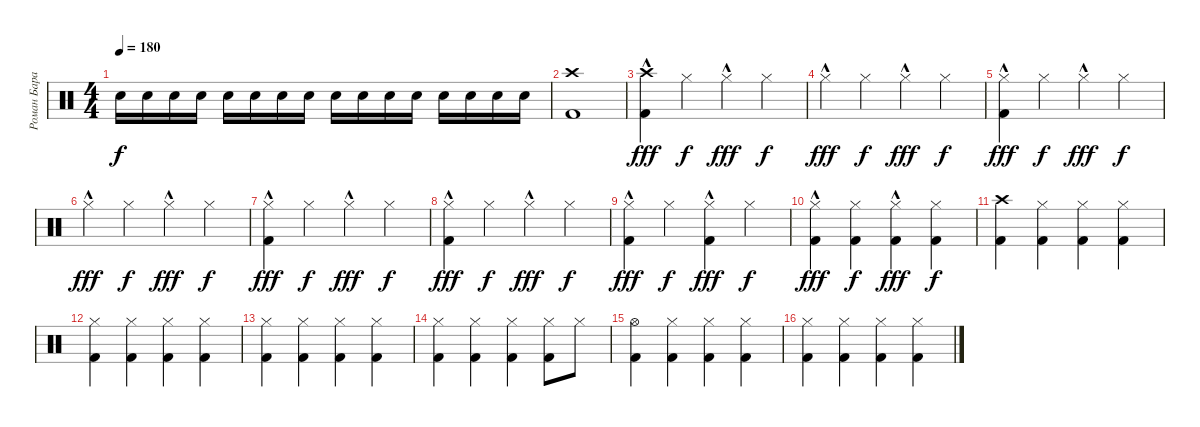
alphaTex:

\track ("Роман Баранюк" "Роман Бара") {instrument percussion}
\staff {score}
\articulation defaults
\ts (4 4)
\tempo 180
\clef neutral
\ks c "Snare (hit) 2".16{dy f} "Snare (hit) 2".16 "Snare (hit) 2".16 "Snare (hit) 2".16 "Snare (hit) 2".16 "Snare (hit) 2".16 "Snare (hit) 2".16 "Snare (hit) 2".16 "Snare (hit) 2".16 "Snare (hit) 2".16 "Snare (hit) 2".16 "Snare (hit) 2".16 "Snare (hit) 2".16 "Snare (hit) 2".16 "Snare (hit) 2".16 "Snare (hit) 2".16
|
("Crash high (hit)" "Kick (hit) 2").1 |
("Crash high (hit)"{hac} "Kick (hit) 2").4{dy fff} "Hi-Hat (closed)".4{dy f} "Hi-Hat (closed)"{hac}.4{dy fff} "Hi-Hat (closed)".4{dy f} |
"Hi-Hat (closed)"{hac}.4{dy fff} "Hi-Hat (closed)".4{dy f} "Hi-Hat (closed)"{hac}.4{dy fff} "Hi-Hat (closed)".4{dy f} |
("Hi-Hat (closed)"{hac} "Kick (hit) 2").4{dy fff} "Hi-Hat (closed)".4{dy f} "Hi-Hat (closed)"{hac}.4{dy fff} "Hi-Hat (closed)".4{dy f} |
"Hi-Hat (closed)"{hac}.4{dy fff} "Hi-Hat (closed)".4{dy f} "Hi-Hat (closed)"{hac}.4{dy fff} "Hi-Hat (closed)".4{dy f} |
("Hi-Hat (closed)"{hac} "Kick (hit) 2").4{dy fff} "Hi-Hat (closed)".4{dy f} "Hi-Hat (closed)"{hac}.4{dy fff} "Hi-Hat (closed)".4{dy f} |
("Hi-Hat (closed)"{hac} "Kick (hit) 2").4{dy fff} "Hi-Hat (closed)".4{dy f} "Hi-Hat (closed)"{hac}.4{dy fff} "Hi-Hat (closed)".4{dy f} |
("Hi-Hat (closed)"{hac} "Kick (hit) 2").4{dy fff} "Hi-Hat (closed)".4{dy f} ("Hi-Hat (closed)"{hac} "Kick (hit) 2").4{dy fff} "Hi-Hat (closed)".4{dy f} |
("Hi-Hat (closed)"{hac} "Kick (hit) 2").4{dy fff} ("Hi-Hat (closed)" "Kick (hit) 2").4{dy f} ("Hi-Hat (closed)"{hac} "Kick (hit) 2").4{dy fff} ("Hi-Hat (closed)" "Kick (hit) 2").4{dy f} |
("Crash high (hit)" "Kick (hit) 2").4 ("Hi-Hat (closed)" "Kick (hit) 2").4 ("Hi-Hat (closed)" "Kick (hit) 2").4 ("Hi-Hat (closed)" "Kick (hit) 2").4 |
("Hi-Hat (closed)" "Kick (hit) 2").4 ("Hi-Hat (closed)" "Kick (hit) 2").4 ("Hi-Hat (closed)" "Kick (hit) 2").4 ("Hi-Hat (closed)" "Kick (hit) 2").4 |
("Hi-Hat (closed)" "Kick (hit) 2").4 ("Hi-Hat (closed)" "Kick (hit) 2").4 ("Hi-Hat (closed)" "Kick (hit) 2").4 ("Hi-Hat (closed)" "Kick (hit) 2").4 |
("Hi-Hat (closed)" "Kick (hit) 2").4 ("Hi-Hat (closed)" "Kick (hit) 2").4 ("Hi-Hat (closed)" "Kick (hit) 2").4 ("Hi-Hat (closed)" "Kick (hit) 2").8 "Hi-Hat (closed)".8 |
("Hi-Hat (open)" "Kick (hit) 2").4 ("Hi-Hat (closed)" "Kick (hit) 2").4 ("Hi-Hat (closed)" "Kick (hit) 2").4 ("Hi-Hat (closed)" "Kick (hit) 2").4 |
("Hi-Hat (closed)" "Kick (hit) 2").4 ("Hi-Hat (closed)" "Kick (hit) 2").4 ("Hi-Hat (closed)" "Kick (hit) 2").4 ("Hi-Hat (closed)" "Kick (hit) 2").4
